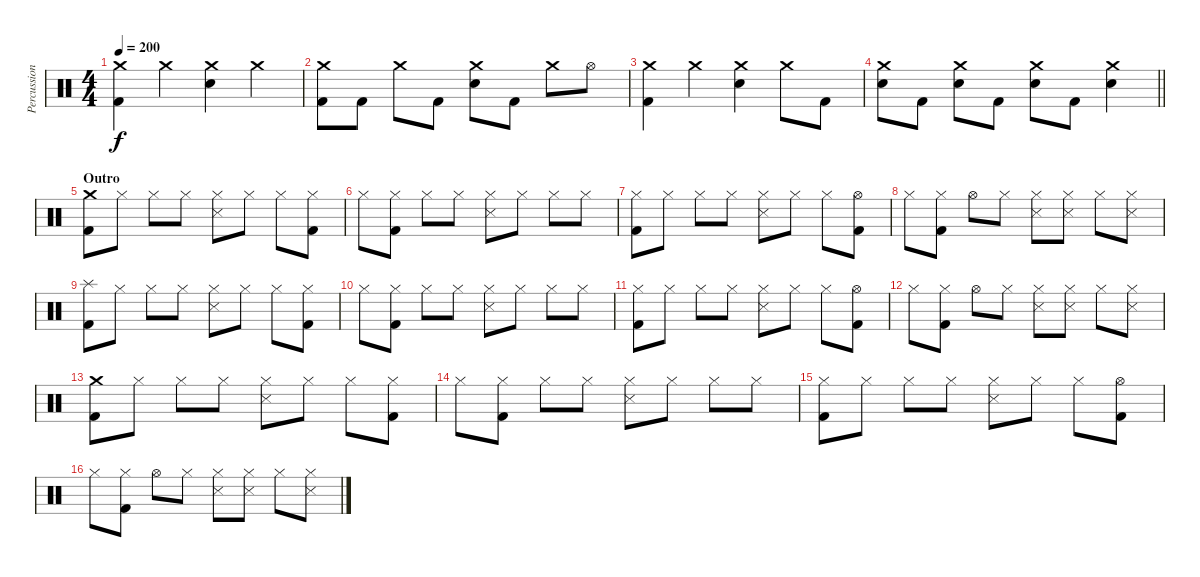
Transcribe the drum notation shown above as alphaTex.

\track ("Percussion" "Percussion") {instrument percussion}
\staff {score}
\articulation defaults
\ts (4 4)
\tempo 200
\clef neutral
\ks c
("Crash medium (hit)" "Kick (hit) 2").4{dy f} "Crash medium (hit)".4 ("Crash medium (hit)" "Electric Snare (hit)").4 "Crash medium (hit)".4 |
("Crash medium (hit)" "Kick (hit) 2").8 "Kick (hit) 2".8 "Crash medium (hit)".8 "Kick (hit) 2".8 ("Crash medium (hit)" "Electric Snare (hit)").8 "Kick (hit) 2".8 "Crash medium (hit)".8 "Hi-Hat (open)".8 |
("Crash medium (hit)" "Kick (hit) 2").4 "Crash medium (hit)".4 ("Crash medium (hit)" "Electric Snare (hit)").4 "Crash medium (hit)".8 "Kick (hit) 2".8 |
\barLineRight lightlight
("Crash medium (hit)" "Electric Snare (hit)").8 "Kick (hit) 2".8 ("Crash medium (hit)" "Electric Snare (hit)").8 "Kick (hit) 2".8 ("Crash medium (hit)" "Electric Snare (hit)").8 "Kick (hit) 2".8 ("Crash medium (hit)" "Electric Snare (hit)").4 |
\section ("" "Outro")
("Crash medium (hit)" "Kick (hit) 2").8 "Hi-Hat (closed)".8 "Hi-Hat (closed)".8 "Hi-Hat (closed)".8 ("Hi-Hat (closed)" "Snare (side stick) 3").8 "Hi-Hat (closed)".8 "Hi-Hat (closed)".8 ("Hi-Hat (closed)" "Kick (hit) 2").8 |
"Hi-Hat (closed)".8 ("Hi-Hat (closed)" "Kick (hit) 2").8 "Hi-Hat (closed)".8 "Hi-Hat (closed)".8 ("Hi-Hat (closed)" "Snare (side stick) 3").8 "Hi-Hat (closed)".8 "Hi-Hat (closed)".8 "Hi-Hat (closed)".8 |
("Hi-Hat (closed)" "Kick (hit) 2").8 "Hi-Hat (closed)".8 "Hi-Hat (closed)".8 "Hi-Hat (closed)".8 ("Hi-Hat (closed)" "Snare (side stick) 3").8 "Hi-Hat (closed)".8 "Hi-Hat (closed)".8 ("Hi-Hat (open)" "Kick (hit) 2").8 |
"Hi-Hat (closed)".8 ("Hi-Hat (closed)" "Kick (hit) 2").8 "Hi-Hat (open)".8 "Hi-Hat (closed)".8 ("Hi-Hat (closed)" "Snare (side stick) 3").8 ("Hi-Hat (closed)" "Snare (side stick) 3").8 "Hi-Hat (closed)".8 ("Hi-Hat (closed)" "Snare (side stick) 3").8 |
("Splash (hit)" "Kick (hit) 2").8 "Hi-Hat (closed)".8 "Hi-Hat (closed)".8 "Hi-Hat (closed)".8 ("Hi-Hat (closed)" "Snare (side stick) 3").8 "Hi-Hat (closed)".8 "Hi-Hat (closed)".8 ("Hi-Hat (closed)" "Kick (hit) 2").8 |
"Hi-Hat (closed)".8 ("Hi-Hat (closed)" "Kick (hit) 2").8 "Hi-Hat (closed)".8 "Hi-Hat (closed)".8 ("Hi-Hat (closed)" "Snare (side stick) 3").8 "Hi-Hat (closed)".8 "Hi-Hat (closed)".8 "Hi-Hat (closed)".8 |
("Hi-Hat (closed)" "Kick (hit) 2").8 "Hi-Hat (closed)".8 "Hi-Hat (closed)".8 "Hi-Hat (closed)".8 ("Hi-Hat (closed)" "Snare (side stick) 3").8 "Hi-Hat (closed)".8 "Hi-Hat (closed)".8 ("Hi-Hat (open)" "Kick (hit) 2").8 |
"Hi-Hat (closed)".8 ("Hi-Hat (closed)" "Kick (hit) 2").8 "Hi-Hat (open)".8 "Hi-Hat (closed)".8 ("Hi-Hat (closed)" "Snare (side stick) 3").8 ("Hi-Hat (closed)" "Snare (side stick) 3").8 "Hi-Hat (closed)".8 ("Hi-Hat (closed)" "Snare (side stick) 3").8 |
("Crash medium (hit)" "Kick (hit) 2").8 "Hi-Hat (closed)".8 "Hi-Hat (closed)".8 "Hi-Hat (closed)".8 ("Hi-Hat (closed)" "Snare (side stick) 3").8 "Hi-Hat (closed)".8 "Hi-Hat (closed)".8 ("Hi-Hat (closed)" "Kick (hit) 2").8 |
"Hi-Hat (closed)".8 ("Hi-Hat (closed)" "Kick (hit) 2").8 "Hi-Hat (closed)".8 "Hi-Hat (closed)".8 ("Hi-Hat (closed)" "Snare (side stick) 3").8 "Hi-Hat (closed)".8 "Hi-Hat (closed)".8 "Hi-Hat (closed)".8 |
("Hi-Hat (closed)" "Kick (hit) 2").8 "Hi-Hat (closed)".8 "Hi-Hat (closed)".8 "Hi-Hat (closed)".8 ("Hi-Hat (closed)" "Snare (side stick) 3").8 "Hi-Hat (closed)".8 "Hi-Hat (closed)".8 ("Hi-Hat (open)" "Kick (hit) 2").8 |
"Hi-Hat (closed)".8 ("Hi-Hat (closed)" "Kick (hit) 2").8 "Hi-Hat (open)".8 "Hi-Hat (closed)".8 ("Hi-Hat (closed)" "Snare (side stick) 3").8 ("Hi-Hat (closed)" "Snare (side stick) 3").8 "Hi-Hat (closed)".8 ("Hi-Hat (closed)" "Snare (side stick) 3").8
